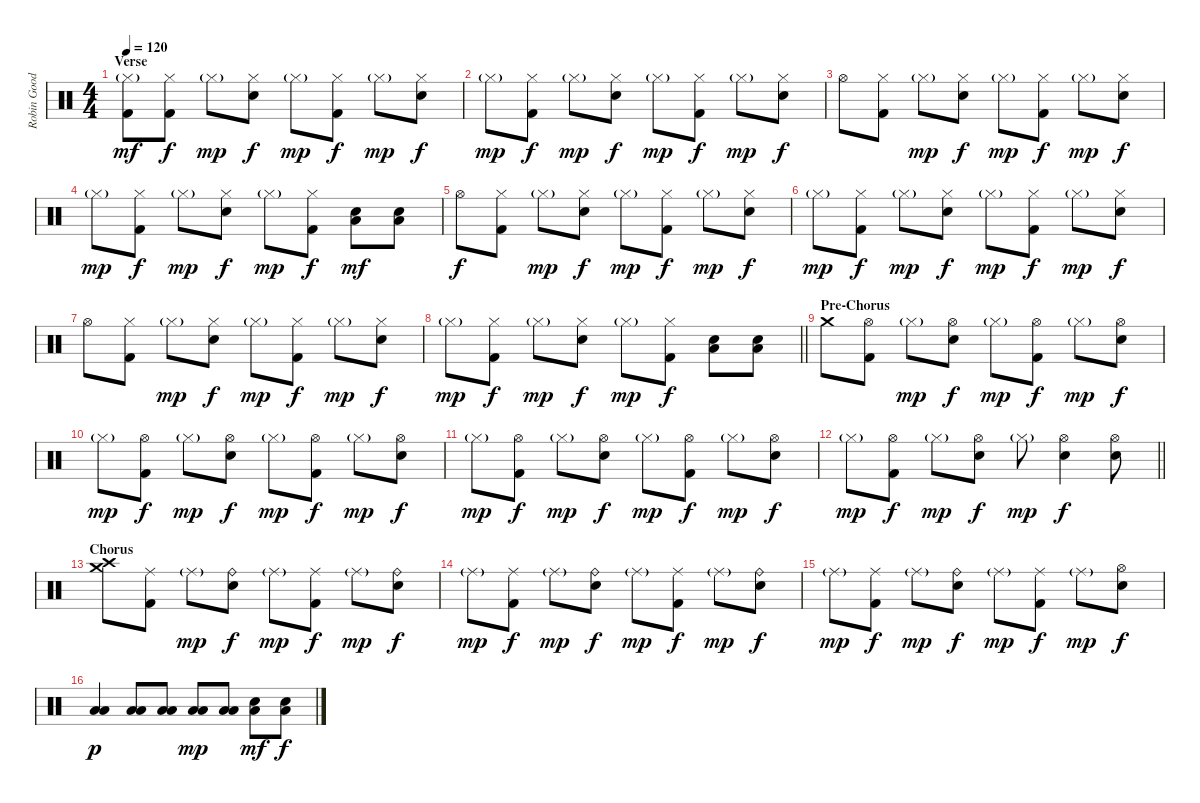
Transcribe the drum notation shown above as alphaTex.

\track ("Robin Goodridge: Drums" "Robin Good") {instrument percussion}
\staff {score}
\articulation defaults
\ts (4 4)
\section ("" "Verse")
\tempo 120
\clef neutral
\ks c
("Hi-Hat (closed)"{g} "Kick (hit) 2").8{dy mf} ("Hi-Hat (closed)" "Kick (hit) 2").8{dy f} "Hi-Hat (closed)"{g}.8{dy mp} ("Hi-Hat (closed)" "Electric Snare (hit)").8{dy f} "Hi-Hat (closed)"{g}.8{dy mp} ("Hi-Hat (closed)" "Kick (hit) 2").8{dy f} "Hi-Hat (closed)"{g}.8{dy mp} ("Hi-Hat (closed)" "Electric Snare (hit)").8{dy f} |
"Hi-Hat (closed)"{g}.8{dy mp} ("Hi-Hat (closed)" "Kick (hit) 2").8{dy f} "Hi-Hat (closed)"{g}.8{dy mp} ("Hi-Hat (closed)" "Electric Snare (hit)").8{dy f} "Hi-Hat (closed)"{g}.8{dy mp} ("Hi-Hat (closed)" "Kick (hit) 2").8{dy f} "Hi-Hat (closed)"{g}.8{dy mp} ("Hi-Hat (closed)" "Electric Snare (hit)").8{dy f} |
"Hi-Hat (open)".8 ("Hi-Hat (closed)" "Kick (hit) 2").8 "Hi-Hat (closed)"{g}.8{dy mp} ("Hi-Hat (closed)" "Electric Snare (hit)").8{dy f} "Hi-Hat (closed)"{g}.8{dy mp} ("Hi-Hat (closed)" "Kick (hit) 2").8{dy f} "Hi-Hat (closed)"{g}.8{dy mp} ("Hi-Hat (closed)" "Electric Snare (hit)").8{dy f} |
"Hi-Hat (closed)"{g}.8{dy mp} ("Hi-Hat (closed)" "Kick (hit) 2").8{dy f} "Hi-Hat (closed)"{g}.8{dy mp} ("Hi-Hat (closed)" "Electric Snare (hit)").8{dy f} "Hi-Hat (closed)"{g}.8{dy mp} ("Hi-Hat (closed)" "Kick (hit) 2").8{dy f} ("Low Floor Tom (hit)" "Electric Snare (hit)").8{dy mf} ("Low Floor Tom (hit)" "Electric Snare (hit)").8 |
"Hi-Hat (open)".8{dy f} ("Hi-Hat (closed)" "Kick (hit) 2").8 "Hi-Hat (closed)"{g}.8{dy mp} ("Hi-Hat (closed)" "Electric Snare (hit)").8{dy f} "Hi-Hat (closed)"{g}.8{dy mp} ("Hi-Hat (closed)" "Kick (hit) 2").8{dy f} "Hi-Hat (closed)"{g}.8{dy mp} ("Hi-Hat (closed)" "Electric Snare (hit)").8{dy f} |
"Hi-Hat (closed)"{g}.8{dy mp} ("Hi-Hat (closed)" "Kick (hit) 2").8{dy f} "Hi-Hat (closed)"{g}.8{dy mp} ("Hi-Hat (closed)" "Electric Snare (hit)").8{dy f} "Hi-Hat (closed)"{g}.8{dy mp} ("Hi-Hat (closed)" "Kick (hit) 2").8{dy f} "Hi-Hat (closed)"{g}.8{dy mp} ("Hi-Hat (closed)" "Electric Snare (hit)").8{dy f} |
"Hi-Hat (open)".8 ("Hi-Hat (closed)" "Kick (hit) 2").8 "Hi-Hat (closed)"{g}.8{dy mp} ("Hi-Hat (closed)" "Electric Snare (hit)").8{dy f} "Hi-Hat (closed)"{g}.8{dy mp} ("Hi-Hat (closed)" "Kick (hit) 2").8{dy f} "Hi-Hat (closed)"{g}.8{dy mp} ("Hi-Hat (closed)" "Electric Snare (hit)").8{dy f} |
\barLineRight lightlight "Hi-Hat (closed)"{g}.8{dy mp}
("Hi-Hat (closed)" "Kick (hit) 2").8{dy f} "Hi-Hat (closed)"{g}.8{dy mp} ("Hi-Hat (closed)" "Electric Snare (hit)").8{dy f} "Hi-Hat (closed)"{g}.8{dy mp} ("Hi-Hat (closed)" "Kick (hit) 2").8{dy f} ("Electric Snare (hit)" "Low Floor Tom (hit)").8 ("Electric Snare (hit)" "Low Floor Tom (hit)").8 |
\section ("" "Pre-Chorus")
"Crash medium (hit)".8 ("Hi-Hat (open)" "Kick (hit) 2").8 "Hi-Hat (closed)"{g}.8{dy mp} ("Hi-Hat (open)" "Electric Snare (hit)").8{dy f} "Hi-Hat (closed)"{g}.8{dy mp} ("Hi-Hat (open)" "Kick (hit) 2").8{dy f} "Hi-Hat (closed)"{g}.8{dy mp} ("Hi-Hat (open)" "Electric Snare (hit)").8{dy f} |
"Hi-Hat (closed)"{g}.8{dy mp} ("Hi-Hat (open)" "Kick (hit) 2").8{dy f} "Hi-Hat (closed)"{g}.8{dy mp} ("Hi-Hat (open)" "Electric Snare (hit)").8{dy f} "Hi-Hat (closed)"{g}.8{dy mp} ("Hi-Hat (open)" "Kick (hit) 2").8{dy f} "Hi-Hat (closed)"{g}.8{dy mp} ("Hi-Hat (open)" "Electric Snare (hit)").8{dy f} |
"Hi-Hat (closed)"{g}.8{dy mp} ("Hi-Hat (open)" "Kick (hit) 2").8{dy f} "Hi-Hat (closed)"{g}.8{dy mp} ("Hi-Hat (open)" "Electric Snare (hit)").8{dy f} "Hi-Hat (closed)"{g}.8{dy mp} ("Hi-Hat (open)" "Kick (hit) 2").8{dy f} "Hi-Hat (closed)"{g}.8{dy mp} ("Hi-Hat (open)" "Electric Snare (hit)").8{dy f} |
\barLineRight lightlight "Hi-Hat (closed)"{g}.8{dy mp}
("Hi-Hat (open)" "Kick (hit) 2").8{dy f} "Hi-Hat (closed)"{g}.8{dy mp} ("Hi-Hat (open)" "Electric Snare (hit)").8{dy f} "Hi-Hat (closed)"{g}.8{dy mp} ("Hi-Hat (open)" "Electric Snare (hit)").4{dy f} ("Hi-Hat (open)" "Electric Snare (hit)").8 |
\section ("" "Chorus")
("Crash high (hit)" "Crash medium (hit)").8 ("Ride (middle)" "Kick (hit) 2").8 "Ride (middle)"{g}.8{dy mp} ("Ride (bell)" "Electric Snare (hit)").8{dy f} "Ride (middle)"{g}.8{dy mp} ("Ride (middle)" "Kick (hit) 2").8{dy f} "Ride (middle)"{g}.8{dy mp} ("Ride (bell)" "Electric Snare (hit)").8{dy f} |
"Ride (middle)"{g}.8{dy mp} ("Ride (middle)" "Kick (hit) 2").8{dy f} "Ride (middle)"{g}.8{dy mp} ("Ride (bell)" "Electric Snare (hit)").8{dy f} "Ride (middle)"{g}.8{dy mp} ("Ride (middle)" "Kick (hit) 2").8{dy f} "Ride (middle)"{g}.8{dy mp} ("Ride (bell)" "Electric Snare (hit)").8{dy f} |
"Ride (middle)"{g}.8{dy mp} ("Ride (middle)" "Kick (hit) 2").8{dy f} "Ride (middle)"{g}.8{dy mp} ("Ride (bell)" "Electric Snare (hit)").8{dy f} "Ride (middle)"{g}.8{dy mp} ("Ride (middle)" "Kick (hit) 2").8{dy f} "Ride (middle)"{g}.8{dy mp} ("Hi-Hat (open)" "Electric Snare (hit)").8{dy f} |
("Low Tom (hit)" "Low Floor Tom (hit)").4{dy p} ("Low Tom (hit)" "Low Floor Tom (hit)").8 ("Low Tom (hit)" "Low Floor Tom (hit)").8 ("Low Tom (hit)" "Low Floor Tom (hit)").8{dy mp} ("Low Tom (hit)" "Low Floor Tom (hit)").8 ("Electric Snare (hit)" "Low Floor Tom (hit)").8{dy mf} ("Electric Snare (hit)" "Low Floor Tom (hit)").8{dy f}
